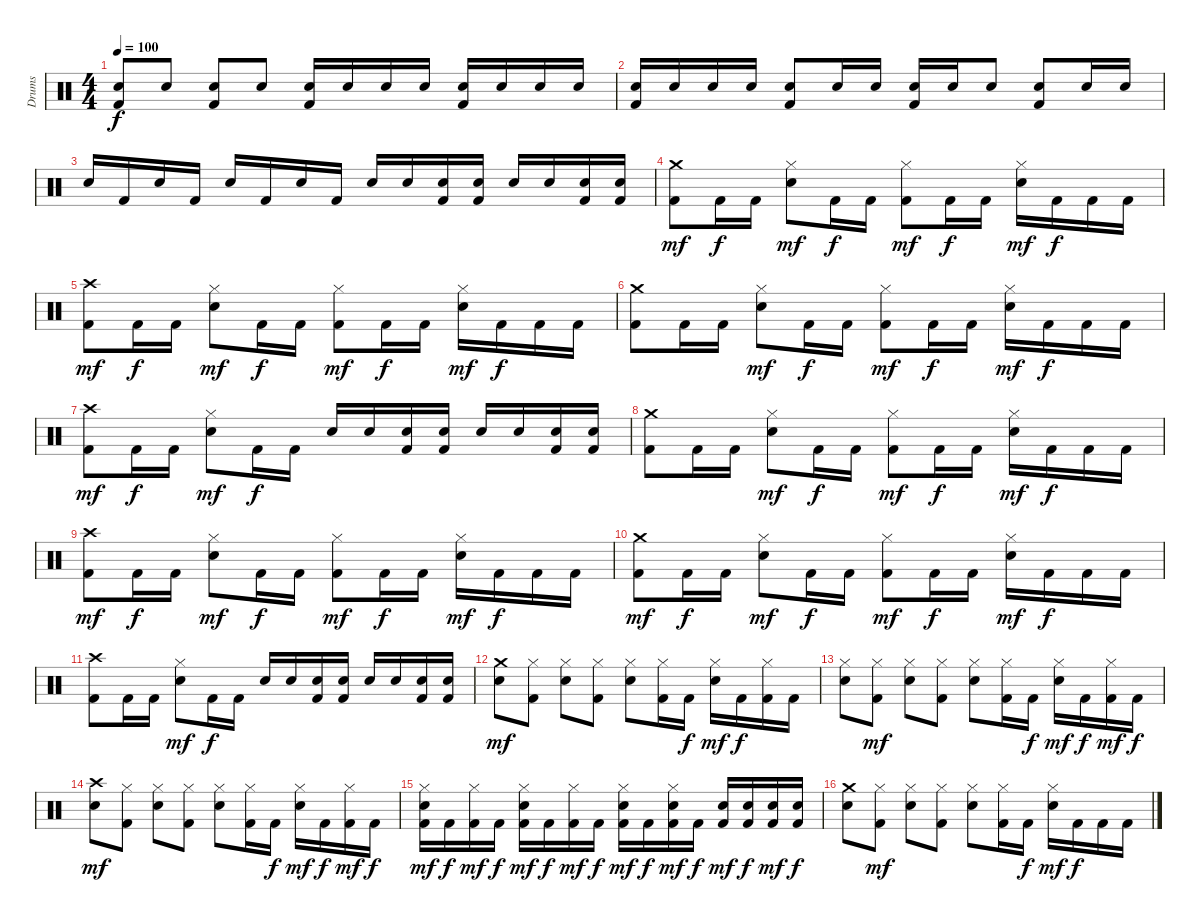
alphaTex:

\track ("Drums" "Drums") {instrument percussion}
\staff {score}
\articulation defaults
\ts (4 4)
\tempo 100
\clef neutral
\ks c
("Snare (hit) 2" "Kick (hit) 2").8{dy f} "Snare (hit) 2".8 ("Snare (hit) 2" "Kick (hit) 2").8 "Snare (hit) 2".8 ("Snare (hit) 2" "Kick (hit) 2").16 "Snare (hit) 2".16 "Snare (hit) 2".16 "Snare (hit) 2".16 ("Snare (hit) 2" "Kick (hit) 2").16 "Snare (hit) 2".16 "Snare (hit) 2".16 "Snare (hit) 2".16 |
("Snare (hit) 2" "Kick (hit) 2").16 "Snare (hit) 2".16 "Snare (hit) 2".16 "Snare (hit) 2".16 ("Snare (hit) 2" "Kick (hit) 2").8 "Snare (hit) 2".16 "Snare (hit) 2".16 ("Snare (hit) 2" "Kick (hit) 2").16 "Snare (hit) 2".16 "Snare (hit) 2".8 ("Snare (hit) 2" "Kick (hit) 2").8 "Snare (hit) 2".16 "Snare (hit) 2".16 |
"Snare (hit) 2".16 "Kick (hit) 2".16 "Snare (hit) 2".16 "Kick (hit) 2".16 "Snare (hit) 2".16 "Kick (hit) 2".16 "Snare (hit) 2".16 "Kick (hit) 2".16 "Snare (hit) 2".16 "Snare (hit) 2".16 ("Snare (hit) 2" "Kick (hit) 2").16 ("Snare (hit) 2" "Kick (hit) 2").16 "Snare (hit) 2".16 "Snare (hit) 2".16 ("Snare (hit) 2" "Kick (hit) 2").16 ("Snare (hit) 2" "Kick (hit) 2").16 |
("Crash medium (hit)" "Kick (hit) 2").8{dy mf} "Kick (hit) 2".16{dy f} "Kick (hit) 2".16 ("Hi-Hat (closed)" "Snare (hit) 2").8{dy mf} "Kick (hit) 2".16{dy f} "Kick (hit) 2".16 ("Hi-Hat (closed)" "Kick (hit) 2").8{dy mf} "Kick (hit) 2".16{dy f} "Kick (hit) 2".16 ("Hi-Hat (closed)" "Snare (hit) 2").16{dy mf} "Kick (hit) 2".16{dy f} "Kick (hit) 2".16 "Kick (hit) 2".16 |
("Crash high (hit)" "Kick (hit) 2").8{dy mf} "Kick (hit) 2".16{dy f} "Kick (hit) 2".16 ("Hi-Hat (closed)" "Snare (hit) 2").8{dy mf} "Kick (hit) 2".16{dy f} "Kick (hit) 2".16 ("Hi-Hat (closed)" "Kick (hit) 2").8{dy mf} "Kick (hit) 2".16{dy f} "Kick (hit) 2".16 ("Hi-Hat (closed)" "Snare (hit) 2").16{dy mf} "Kick (hit) 2".16{dy f} "Kick (hit) 2".16 "Kick (hit) 2".16 |
("Crash medium (hit)" "Kick (hit) 2").8 "Kick (hit) 2".16 "Kick (hit) 2".16 ("Hi-Hat (closed)" "Snare (hit) 2").8{dy mf} "Kick (hit) 2".16{dy f} "Kick (hit) 2".16 ("Hi-Hat (closed)" "Kick (hit) 2").8{dy mf} "Kick (hit) 2".16{dy f} "Kick (hit) 2".16 ("Hi-Hat (closed)" "Snare (hit) 2").16{dy mf} "Kick (hit) 2".16{dy f} "Kick (hit) 2".16 "Kick (hit) 2".16 |
("Crash high (hit)" "Kick (hit) 2").8{dy mf} "Kick (hit) 2".16{dy f} "Kick (hit) 2".16 ("Hi-Hat (closed)" "Snare (hit) 2").8{dy mf} "Kick (hit) 2".16{dy f} "Kick (hit) 2".16 "Snare (hit) 2".16 "Snare (hit) 2".16 ("Snare (hit) 2" "Kick (hit) 2").16 ("Snare (hit) 2" "Kick (hit) 2").16 "Snare (hit) 2".16 "Snare (hit) 2".16 ("Snare (hit) 2" "Kick (hit) 2").16 ("Snare (hit) 2" "Kick (hit) 2").16 |
("Crash medium (hit)" "Kick (hit) 2").8 "Kick (hit) 2".16 "Kick (hit) 2".16 ("Hi-Hat (closed)" "Snare (hit) 2").8{dy mf} "Kick (hit) 2".16{dy f} "Kick (hit) 2".16 ("Hi-Hat (closed)" "Kick (hit) 2").8{dy mf} "Kick (hit) 2".16{dy f} "Kick (hit) 2".16 ("Hi-Hat (closed)" "Snare (hit) 2").16{dy mf} "Kick (hit) 2".16{dy f} "Kick (hit) 2".16 "Kick (hit) 2".16 |
("Crash high (hit)" "Kick (hit) 2").8{dy mf} "Kick (hit) 2".16{dy f} "Kick (hit) 2".16 ("Hi-Hat (closed)" "Snare (hit) 2").8{dy mf} "Kick (hit) 2".16{dy f} "Kick (hit) 2".16 ("Hi-Hat (closed)" "Kick (hit) 2").8{dy mf} "Kick (hit) 2".16{dy f} "Kick (hit) 2".16 ("Hi-Hat (closed)" "Snare (hit) 2").16{dy mf} "Kick (hit) 2".16{dy f} "Kick (hit) 2".16 "Kick (hit) 2".16 |
("Crash medium (hit)" "Kick (hit) 2").8{dy mf} "Kick (hit) 2".16{dy f} "Kick (hit) 2".16 ("Hi-Hat (closed)" "Snare (hit) 2").8{dy mf} "Kick (hit) 2".16{dy f} "Kick (hit) 2".16 ("Hi-Hat (closed)" "Kick (hit) 2").8{dy mf} "Kick (hit) 2".16{dy f} "Kick (hit) 2".16 ("Hi-Hat (closed)" "Snare (hit) 2").16{dy mf} "Kick (hit) 2".16{dy f} "Kick (hit) 2".16 "Kick (hit) 2".16 |
("Crash high (hit)" "Kick (hit) 2").8 "Kick (hit) 2".16 "Kick (hit) 2".16 ("Hi-Hat (closed)" "Snare (hit) 2").8{dy mf} "Kick (hit) 2".16{dy f} "Kick (hit) 2".16 "Snare (hit) 2".16 "Snare (hit) 2".16 ("Snare (hit) 2" "Kick (hit) 2").16 ("Snare (hit) 2" "Kick (hit) 2").16 "Snare (hit) 2".16 "Snare (hit) 2".16 ("Snare (hit) 2" "Kick (hit) 2").16 ("Snare (hit) 2" "Kick (hit) 2").16 |
("Crash medium (hit)" "Snare (hit) 2").8{dy mf} ("Hi-Hat (closed)" "Kick (hit) 2").8 ("Hi-Hat (closed)" "Snare (hit) 2").8 ("Hi-Hat (closed)" "Kick (hit) 2").8 ("Hi-Hat (closed)" "Snare (hit) 2").8 ("Hi-Hat (closed)" "Kick (hit) 2").16 "Kick (hit) 2".16{dy f} ("Hi-Hat (closed)" "Snare (hit) 2").16{dy mf} "Kick (hit) 2".16{dy f} ("Hi-Hat (closed)" "Kick (hit) 2").16 "Kick (hit) 2".16 |
("Hi-Hat (closed)" "Snare (hit) 2").8 ("Hi-Hat (closed)" "Kick (hit) 2").8{dy mf} ("Hi-Hat (closed)" "Snare (hit) 2").8 ("Hi-Hat (closed)" "Kick (hit) 2").8 ("Hi-Hat (closed)" "Snare (hit) 2").8 ("Hi-Hat (closed)" "Kick (hit) 2").16 "Kick (hit) 2".16{dy f} ("Hi-Hat (closed)" "Snare (hit) 2").16{dy mf} "Kick (hit) 2".16{dy f} ("Hi-Hat (closed)" "Kick (hit) 2").16{dy mf} "Kick (hit) 2".16{dy f} |
("Crash high (hit)" "Snare (hit) 2").8{dy mf} ("Hi-Hat (closed)" "Kick (hit) 2").8 ("Hi-Hat (closed)" "Snare (hit) 2").8 ("Hi-Hat (closed)" "Kick (hit) 2").8 ("Hi-Hat (closed)" "Snare (hit) 2").8 ("Hi-Hat (closed)" "Kick (hit) 2").16 "Kick (hit) 2".16{dy f} ("Hi-Hat (closed)" "Snare (hit) 2").16{dy mf} "Kick (hit) 2".16{dy f} ("Hi-Hat (closed)" "Kick (hit) 2").16{dy mf} "Kick (hit) 2".16{dy f} |
("Hi-Hat (closed)" "Snare (hit) 2" "Kick (hit) 2").16{dy mf} "Kick (hit) 2".16{dy f} ("Hi-Hat (closed)" "Kick (hit) 2").16{dy mf} "Kick (hit) 2".16{dy f} ("Hi-Hat (closed)" "Snare (hit) 2" "Kick (hit) 2").16{dy mf} "Kick (hit) 2".16{dy f} ("Hi-Hat (closed)" "Kick (hit) 2").16{dy mf} "Kick (hit) 2".16{dy f} ("Hi-Hat (closed)" "Snare (hit) 2" "Kick (hit) 2").16{dy mf} "Kick (hit) 2".16{dy f} ("Hi-Hat (closed)" "Snare (hit) 2" "Kick (hit) 2").16{dy mf} "Kick (hit) 2".16{dy f} ("Snare (hit) 2" "Kick (hit) 2").16{dy mf} ("Snare (hit) 2" "Kick (hit) 2").16{dy f} ("Snare (hit) 2" "Kick (hit) 2").16{dy mf} ("Snare (hit) 2" "Kick (hit) 2").16{dy f} |
("Crash medium (hit)" "Snare (hit) 2").8 ("Hi-Hat (closed)" "Kick (hit) 2").8{dy mf} ("Hi-Hat (closed)" "Snare (hit) 2").8 ("Hi-Hat (closed)" "Kick (hit) 2").8 ("Hi-Hat (closed)" "Snare (hit) 2").8 ("Hi-Hat (closed)" "Kick (hit) 2").16 "Kick (hit) 2".16{dy f} ("Hi-Hat (closed)" "Snare (hit) 2").16{dy mf} "Kick (hit) 2".16{dy f} "Kick (hit) 2".16 "Kick (hit) 2".16
